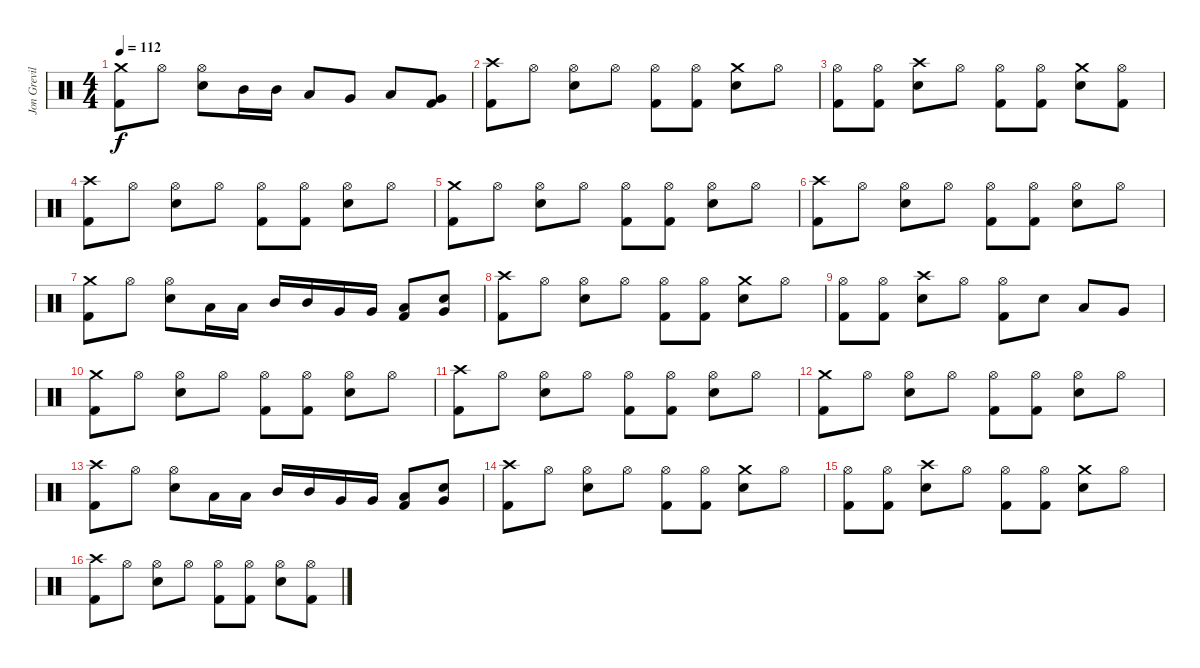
\track ("Jon Greville (Drums)" "Jon Grevil") {instrument percussion}
\staff {score}
\articulation defaults
\ts (4 4)
\tempo 112
\clef neutral
\ks c
("Crash medium (hit)" "Kick (hit) 2").8{dy f} "Hi-Hat (open)".8 ("Hi-Hat (open)" "Electric Snare (hit)").8 "Mid Tom (hit)".16 "Mid Tom (hit)".16 "Low Tom (hit)".8 "Very Low Tom (hit)".8 "Low Tom (hit)".8 ("Very Low Tom (hit)" "Kick (hit) 2").8 |
("Crash high (hit)" "Kick (hit) 2").8 "Hi-Hat (open)".8 ("Hi-Hat (open)" "Electric Snare (hit)").8 "Hi-Hat (open)".8 ("Hi-Hat (open)" "Kick (hit) 2").8 ("Hi-Hat (open)" "Kick (hit) 2").8 ("Crash medium (hit)" "Electric Snare (hit)").8 "Hi-Hat (open)".8 |
("Hi-Hat (open)" "Kick (hit) 2").8 ("Hi-Hat (open)" "Kick (hit) 2").8 ("Crash high (hit)" "Electric Snare (hit)").8 "Hi-Hat (open)".8 ("Hi-Hat (open)" "Kick (hit) 2").8 ("Hi-Hat (open)" "Kick (hit) 2").8 ("Crash medium (hit)" "Electric Snare (hit)").8 ("Hi-Hat (open)" "Kick (hit) 2").8 |
("Crash high (hit)" "Kick (hit) 2").8 "Hi-Hat (open)".8 ("Hi-Hat (open)" "Electric Snare (hit)").8 "Hi-Hat (open)".8 ("Hi-Hat (open)" "Kick (hit) 2").8 ("Hi-Hat (open)" "Kick (hit) 2").8 ("Hi-Hat (open)" "Electric Snare (hit)").8 "Hi-Hat (open)".8 |
("Crash medium (hit)" "Kick (hit) 2").8 "Hi-Hat (open)".8 ("Hi-Hat (open)" "Electric Snare (hit)").8 "Hi-Hat (open)".8 ("Hi-Hat (open)" "Kick (hit) 2").8 ("Hi-Hat (open)" "Kick (hit) 2").8 ("Hi-Hat (open)" "Electric Snare (hit)").8 "Hi-Hat (open)".8 |
("Crash high (hit)" "Kick (hit) 2").8 "Hi-Hat (open)".8 ("Hi-Hat (open)" "Electric Snare (hit)").8 "Hi-Hat (open)".8 ("Hi-Hat (open)" "Kick (hit) 2").8 ("Hi-Hat (open)" "Kick (hit) 2").8 ("Hi-Hat (open)" "Electric Snare (hit)").8 "Hi-Hat (open)".8 |
("Crash medium (hit)" "Kick (hit) 2").8 "Hi-Hat (open)".8 ("Hi-Hat (open)" "Electric Snare (hit)").8 "Low Tom (hit)".16 "Low Tom (hit)".16 "Mid Tom (hit)".16 "Mid Tom (hit)".16 "Very Low Tom (hit)".16 "Very Low Tom (hit)".16 ("Low Tom (hit)" "Kick (hit) 2").8 ("Electric Snare (hit)" "Very Low Tom (hit)").8 |
("Crash high (hit)" "Kick (hit) 2").8 "Hi-Hat (open)".8 ("Hi-Hat (open)" "Electric Snare (hit)").8 "Hi-Hat (open)".8 ("Hi-Hat (open)" "Kick (hit) 2").8 ("Hi-Hat (open)" "Kick (hit) 2").8 ("Crash medium (hit)" "Electric Snare (hit)").8 "Hi-Hat (open)".8 |
("Hi-Hat (open)" "Kick (hit) 2").8 ("Hi-Hat (open)" "Kick (hit) 2").8 ("Crash high (hit)" "Electric Snare (hit)").8 "Hi-Hat (open)".8 ("Hi-Hat (open)" "Kick (hit) 2").8 "Electric Snare (hit)".8 "Low Tom (hit)".8 "Very Low Tom (hit)".8 |
("Crash medium (hit)" "Kick (hit) 2").8 "Hi-Hat (open)".8 ("Hi-Hat (open)" "Electric Snare (hit)").8 "Hi-Hat (open)".8 ("Hi-Hat (open)" "Kick (hit) 2").8 ("Hi-Hat (open)" "Kick (hit) 2").8 ("Hi-Hat (open)" "Electric Snare (hit)").8 "Hi-Hat (open)".8 |
("Crash high (hit)" "Kick (hit) 2").8 "Hi-Hat (open)".8 ("Hi-Hat (open)" "Electric Snare (hit)").8 "Hi-Hat (open)".8 ("Hi-Hat (open)" "Kick (hit) 2").8 ("Hi-Hat (open)" "Kick (hit) 2").8 ("Hi-Hat (open)" "Electric Snare (hit)").8 "Hi-Hat (open)".8 |
("Crash medium (hit)" "Kick (hit) 2").8 "Hi-Hat (open)".8 ("Hi-Hat (open)" "Electric Snare (hit)").8 "Hi-Hat (open)".8 ("Hi-Hat (open)" "Kick (hit) 2").8 ("Hi-Hat (open)" "Kick (hit) 2").8 ("Hi-Hat (open)" "Electric Snare (hit)").8 "Hi-Hat (open)".8 |
("Crash high (hit)" "Kick (hit) 2").8 "Hi-Hat (open)".8 ("Hi-Hat (open)" "Electric Snare (hit)").8 "Low Tom (hit)".16 "Low Tom (hit)".16 "Mid Tom (hit)".16 "Mid Tom (hit)".16 "Very Low Tom (hit)".16 "Very Low Tom (hit)".16 ("Low Tom (hit)" "Kick (hit) 2").8 ("Electric Snare (hit)" "Very Low Tom (hit)").8 |
("Crash high (hit)" "Kick (hit) 2").8 "Hi-Hat (open)".8 ("Hi-Hat (open)" "Electric Snare (hit)").8 "Hi-Hat (open)".8 ("Hi-Hat (open)" "Kick (hit) 2").8 ("Hi-Hat (open)" "Kick (hit) 2").8 ("Crash medium (hit)" "Electric Snare (hit)").8 "Hi-Hat (open)".8 |
("Hi-Hat (open)" "Kick (hit) 2").8 ("Hi-Hat (open)" "Kick (hit) 2").8 ("Crash high (hit)" "Electric Snare (hit)").8 "Hi-Hat (open)".8 ("Hi-Hat (open)" "Kick (hit) 2").8 ("Hi-Hat (open)" "Kick (hit) 2").8 ("Crash medium (hit)" "Electric Snare (hit)").8 "Hi-Hat (open)".8 |
("Crash high (hit)" "Kick (hit) 2").8 "Hi-Hat (open)".8 ("Hi-Hat (open)" "Electric Snare (hit)").8 "Hi-Hat (open)".8 ("Hi-Hat (open)" "Kick (hit) 2").8 ("Hi-Hat (open)" "Kick (hit) 2").8 ("Hi-Hat (open)" "Electric Snare (hit)").8 ("Hi-Hat (open)" "Kick (hit) 2").8
